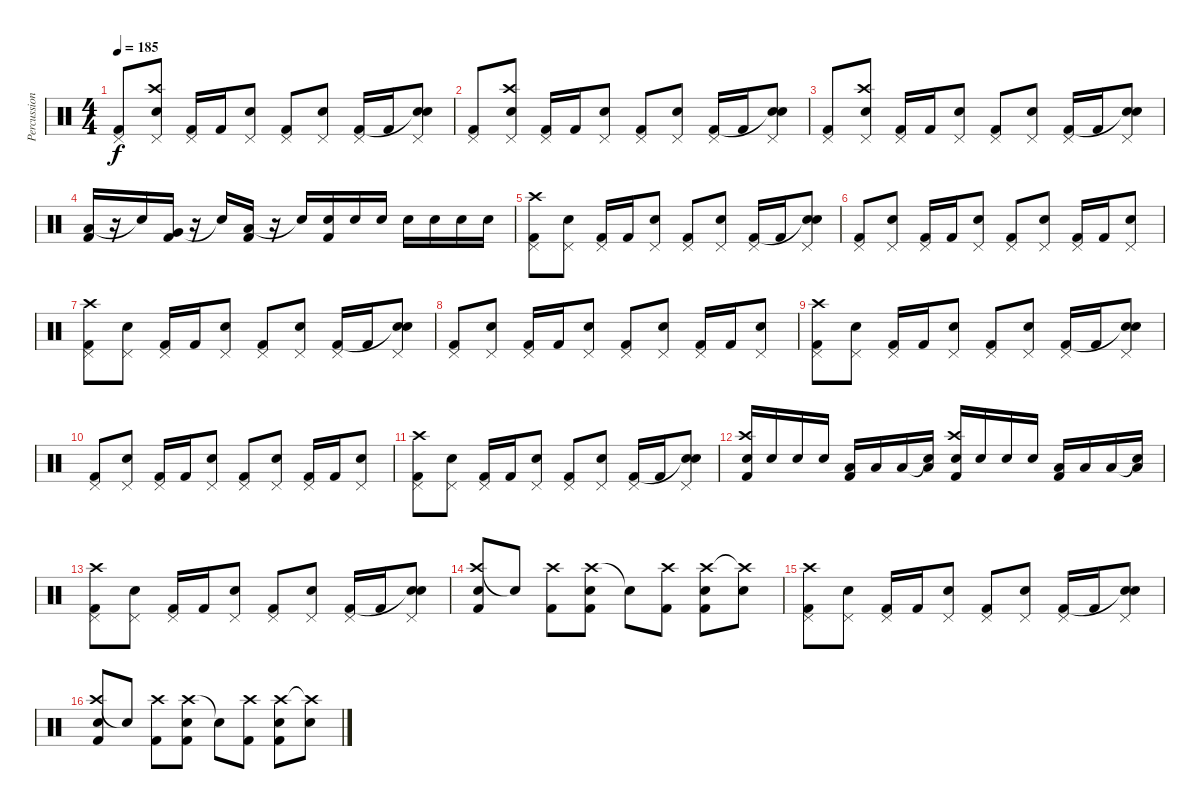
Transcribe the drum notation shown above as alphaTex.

\track ("Percussions" "Percussion") {instrument percussion}
\staff {score}
\articulation defaults
\ts (4 4)
\tempo 185
\clef neutral
\ks c
("Pedal Hi-Hat (hit)" "Kick (hit) 2").8{dy f} ("Pedal Hi-Hat (hit)" "Crash high (hit)" "Snare (hit) 2").8 ("Pedal Hi-Hat (hit)" "Kick (hit) 2").16 "Kick (hit) 2".16 ("Pedal Hi-Hat (hit)" "Snare (hit) 2").8 ("Pedal Hi-Hat (hit)" "Kick (hit) 2").8 ("Pedal Hi-Hat (hit)" "Snare (hit) 2").8 ("Pedal Hi-Hat (hit)" "Kick (hit) 2").16 "Kick (hit) 2".16 ("Pedal Hi-Hat (hit)" "Snare (hit)"{t} "Snare (hit) 2").8 |
("Pedal Hi-Hat (hit)" "Kick (hit) 2").8 ("Pedal Hi-Hat (hit)" "Crash high (hit)" "Snare (hit) 2").8 ("Pedal Hi-Hat (hit)" "Kick (hit) 2").16 "Kick (hit) 2".16 ("Pedal Hi-Hat (hit)" "Snare (hit) 2").8 ("Pedal Hi-Hat (hit)" "Kick (hit) 2").8 ("Pedal Hi-Hat (hit)" "Snare (hit) 2").8 ("Pedal Hi-Hat (hit)" "Kick (hit) 2").16 "Kick (hit) 2".16 ("Pedal Hi-Hat (hit)" "Snare (hit)"{t} "Snare (hit) 2").8 |
("Pedal Hi-Hat (hit)" "Kick (hit) 2").8 ("Pedal Hi-Hat (hit)" "Crash high (hit)" "Snare (hit) 2").8 ("Pedal Hi-Hat (hit)" "Kick (hit) 2").16 "Kick (hit) 2".16 ("Pedal Hi-Hat (hit)" "Snare (hit) 2").8 ("Pedal Hi-Hat (hit)" "Kick (hit) 2").8 ("Pedal Hi-Hat (hit)" "Snare (hit) 2").8 ("Pedal Hi-Hat (hit)" "Kick (hit) 2").16 "Kick (hit) 2".16 ("Pedal Hi-Hat (hit)" "Snare (hit)"{t} "Snare (hit) 2").8 |
("Low Tom (hit)" "Kick (hit) 2").16 r.16 "Snare (hit)"{t}.16 ("Very Low Tom (hit)" "Kick (hit) 2").16 r.16 "Snare (hit)"{t}.16 ("Low Floor Tom (hit)" "Kick (hit) 2").16 r.16 "Snare (hit)"{t}.16 ("Snare (hit) 2" "Kick (hit) 2").16 "Snare (hit) 2".16 "Snare (hit) 2".16 "Snare (hit) 2".16 "Snare (hit) 2".16 "Snare (hit) 2".16 "Snare (hit) 2".16 |
("Pedal Hi-Hat (hit)" "Crash high (hit)" "Kick (hit) 2").8 ("Pedal Hi-Hat (hit)" "Snare (hit) 2").8 ("Pedal Hi-Hat (hit)" "Kick (hit) 2").16 "Kick (hit) 2".16 ("Pedal Hi-Hat (hit)" "Snare (hit) 2").8 ("Pedal Hi-Hat (hit)" "Kick (hit) 2").8 ("Pedal Hi-Hat (hit)" "Snare (hit) 2").8 ("Pedal Hi-Hat (hit)" "Kick (hit) 2").16 "Kick (hit) 2".16 ("Pedal Hi-Hat (hit)" "Snare (hit)"{t} "Snare (hit) 2").8 |
("Pedal Hi-Hat (hit)" "Kick (hit) 2").8 ("Pedal Hi-Hat (hit)" "Snare (hit) 2").8 ("Pedal Hi-Hat (hit)" "Kick (hit) 2").16 "Kick (hit) 2".16 ("Pedal Hi-Hat (hit)" "Snare (hit) 2").8 ("Pedal Hi-Hat (hit)" "Kick (hit) 2").8 ("Pedal Hi-Hat (hit)" "Snare (hit) 2").8 ("Pedal Hi-Hat (hit)" "Kick (hit) 2").16 "Kick (hit) 2".16 ("Pedal Hi-Hat (hit)" "Snare (hit) 2").8 |
("Pedal Hi-Hat (hit)" "Crash high (hit)" "Kick (hit) 2").8 ("Pedal Hi-Hat (hit)" "Snare (hit) 2").8 ("Pedal Hi-Hat (hit)" "Kick (hit) 2").16 "Kick (hit) 2".16 ("Pedal Hi-Hat (hit)" "Snare (hit) 2").8 ("Pedal Hi-Hat (hit)" "Kick (hit) 2").8 ("Pedal Hi-Hat (hit)" "Snare (hit) 2").8 ("Pedal Hi-Hat (hit)" "Kick (hit) 2").16 "Kick (hit) 2".16 ("Pedal Hi-Hat (hit)" "Snare (hit)"{t} "Snare (hit) 2").8 |
("Pedal Hi-Hat (hit)" "Kick (hit) 2").8 ("Pedal Hi-Hat (hit)" "Snare (hit) 2").8 ("Pedal Hi-Hat (hit)" "Kick (hit) 2").16 "Kick (hit) 2".16 ("Pedal Hi-Hat (hit)" "Snare (hit) 2").8 ("Pedal Hi-Hat (hit)" "Kick (hit) 2").8 ("Pedal Hi-Hat (hit)" "Snare (hit) 2").8 ("Pedal Hi-Hat (hit)" "Kick (hit) 2").16 "Kick (hit) 2".16 ("Pedal Hi-Hat (hit)" "Snare (hit) 2").8 |
("Pedal Hi-Hat (hit)" "Crash high (hit)" "Kick (hit) 2").8 ("Pedal Hi-Hat (hit)" "Snare (hit) 2").8 ("Pedal Hi-Hat (hit)" "Kick (hit) 2").16 "Kick (hit) 2".16 ("Pedal Hi-Hat (hit)" "Snare (hit) 2").8 ("Pedal Hi-Hat (hit)" "Kick (hit) 2").8 ("Pedal Hi-Hat (hit)" "Snare (hit) 2").8 ("Pedal Hi-Hat (hit)" "Kick (hit) 2").16 "Kick (hit) 2".16 ("Pedal Hi-Hat (hit)" "Snare (hit)"{t} "Snare (hit) 2").8 |
("Pedal Hi-Hat (hit)" "Kick (hit) 2").8 ("Pedal Hi-Hat (hit)" "Snare (hit) 2").8 ("Pedal Hi-Hat (hit)" "Kick (hit) 2").16 "Kick (hit) 2".16 ("Pedal Hi-Hat (hit)" "Snare (hit) 2").8 ("Pedal Hi-Hat (hit)" "Kick (hit) 2").8 ("Pedal Hi-Hat (hit)" "Snare (hit) 2").8 ("Pedal Hi-Hat (hit)" "Kick (hit) 2").16 "Kick (hit) 2".16 ("Pedal Hi-Hat (hit)" "Snare (hit) 2").8 |
("Pedal Hi-Hat (hit)" "Crash high (hit)" "Kick (hit) 2").8 ("Pedal Hi-Hat (hit)" "Snare (hit) 2").8 ("Pedal Hi-Hat (hit)" "Kick (hit) 2").16 "Kick (hit) 2".16 ("Pedal Hi-Hat (hit)" "Snare (hit) 2").8 ("Pedal Hi-Hat (hit)" "Kick (hit) 2").8 ("Pedal Hi-Hat (hit)" "Snare (hit) 2").8 ("Pedal Hi-Hat (hit)" "Kick (hit) 2").16 "Kick (hit) 2".16 ("Pedal Hi-Hat (hit)" "Snare (hit)"{t} "Snare (hit) 2").8 |
("Crash high (hit)" "Snare (hit) 2" "Kick (hit) 2").16 "Snare (hit) 2".16 "Snare (hit) 2".16 "Snare (hit) 2".16 ("Low Tom (hit)" "Kick (hit) 2").16 "Low Tom (hit)".16 "Low Tom (hit)".16 ("Snare (hit)"{t} "Low Tom (hit)").16 ("Crash high (hit)" "Snare (hit) 2" "Kick (hit) 2").16 "Snare (hit) 2".16 "Snare (hit) 2".16 "Snare (hit) 2".16 ("Low Floor Tom (hit)" "Kick (hit) 2").16 "Low Floor Tom (hit)".16 "Low Floor Tom (hit)".16 ("Snare (hit)"{t} "Low Floor Tom (hit)").16 |
("Pedal Hi-Hat (hit)" "Crash high (hit)" "Kick (hit) 2").8 ("Pedal Hi-Hat (hit)" "Snare (hit) 2").8 ("Pedal Hi-Hat (hit)" "Kick (hit) 2").16 "Kick (hit) 2".16 ("Pedal Hi-Hat (hit)" "Snare (hit) 2").8 ("Pedal Hi-Hat (hit)" "Kick (hit) 2").8 ("Pedal Hi-Hat (hit)" "Snare (hit) 2").8 ("Pedal Hi-Hat (hit)" "Kick (hit) 2").16 "Kick (hit) 2".16 ("Pedal Hi-Hat (hit)" "Snare (hit)"{t} "Snare (hit) 2").8 |
("Crash high (hit)" "Snare (hit) 2" "Kick (hit) 2").8 "Snare (hit)"{t}.8 ("Crash high (hit)" "Kick (hit) 2").8 ("Crash high (hit)" "Snare (hit) 2" "Kick (hit) 2").8 "Snare (hit)"{t}.8 ("Crash high (hit)" "Kick (hit) 2").8 ("Crash high (hit)" "Snare (hit) 2" "Kick (hit) 2").8 ("Crash high (hit)"{t} "Snare (hit) 2").8 |
("Pedal Hi-Hat (hit)" "Crash high (hit)" "Kick (hit) 2").8 ("Pedal Hi-Hat (hit)" "Snare (hit) 2").8 ("Pedal Hi-Hat (hit)" "Kick (hit) 2").16 "Kick (hit) 2".16 ("Pedal Hi-Hat (hit)" "Snare (hit) 2").8 ("Pedal Hi-Hat (hit)" "Kick (hit) 2").8 ("Pedal Hi-Hat (hit)" "Snare (hit) 2").8 ("Pedal Hi-Hat (hit)" "Kick (hit) 2").16 "Kick (hit) 2".16 ("Pedal Hi-Hat (hit)" "Snare (hit)"{t} "Snare (hit) 2").8 |
("Crash high (hit)" "Snare (hit) 2" "Kick (hit) 2").8 "Snare (hit)"{t}.8 ("Crash high (hit)" "Kick (hit) 2").8 ("Crash high (hit)" "Snare (hit) 2" "Kick (hit) 2").8 "Snare (hit)"{t}.8 ("Crash high (hit)" "Kick (hit) 2").8 ("Crash high (hit)" "Snare (hit) 2" "Kick (hit) 2").8 ("Crash high (hit)"{t} "Snare (hit) 2").8
